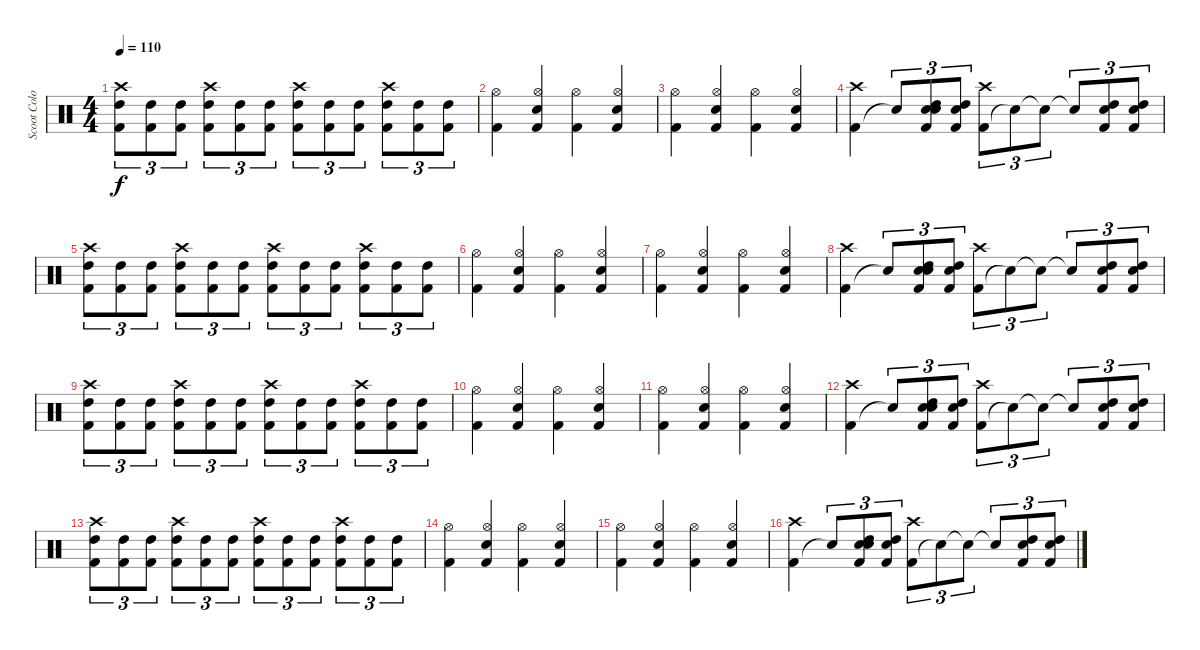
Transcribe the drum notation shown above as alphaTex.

\track ("Scoot Colombus" "Scoot Colo") {instrument percussion}
\staff {score}
\articulation defaults
\ts (4 4)
\tempo 110
\clef neutral
\ks c
("Kick (hit) 2" "High Tom (hit)" "Crash high (hit)").8{tu (3 2) dy f} ("Kick (hit) 2" "High Tom (hit)").8{tu (3 2)} ("Kick (hit) 2" "High Tom (hit)").8{tu (3 2)} ("Kick (hit) 2" "High Tom (hit)" "Crash high (hit)").8{tu (3 2)} ("Kick (hit) 2" "High Tom (hit)").8{tu (3 2)} ("Kick (hit) 2" "High Tom (hit)").8{tu (3 2)} ("Kick (hit) 2" "High Tom (hit)" "Crash high (hit)").8{tu (3 2)} ("Kick (hit) 2" "High Tom (hit)").8{tu (3 2)} ("Kick (hit) 2" "High Tom (hit)").8{tu (3 2)} ("Kick (hit) 2" "High Tom (hit)" "Crash high (hit)").8{tu (3 2)} ("Kick (hit) 2" "High Tom (hit)").8{tu (3 2)} ("Kick (hit) 2" "High Tom (hit)").8{tu (3 2)} |
("Kick (hit) 2" "Hi-Hat (open)").4 ("Kick (hit) 2" "Snare (hit) 2" "Hi-Hat (open)").4 ("Kick (hit) 2" "Hi-Hat (open)").4 ("Kick (hit) 2" "Snare (hit) 2" "Hi-Hat (open)").4 |
("Kick (hit) 2" "Hi-Hat (open)").4 ("Kick (hit) 2" "Snare (hit) 2" "Hi-Hat (open)").4 ("Kick (hit) 2" "Hi-Hat (open)").4 ("Kick (hit) 2" "Snare (hit) 2" "Hi-Hat (open)").4 |
("Kick (hit) 2" "Crash high (hit)").4 "Snare (hit)"{t}.8{tu (3 2)} ("Kick (hit) 2" "High Tom (hit)" "Snare (hit) 2" "Snare (hit)").8{tu (3 2)} ("Kick (hit) 2" "High Tom (hit)" "Snare (hit) 2").8{tu (3 2)} ("Kick (hit) 2" "Crash high (hit)").8{tu (3 2)} "Snare (hit)"{t}.8{tu (3 2)} "Snare (hit)"{t}.8{tu (3 2)} "Snare (hit)"{t}.8{tu (3 2)} ("Kick (hit) 2" "High Tom (hit)" "Snare (hit) 2").8{tu (3 2)} ("Kick (hit) 2" "High Tom (hit)" "Snare (hit) 2").8{tu (3 2)} |
("Kick (hit) 2" "High Tom (hit)" "Crash high (hit)").8{tu (3 2)} ("Kick (hit) 2" "High Tom (hit)").8{tu (3 2)} ("Kick (hit) 2" "High Tom (hit)").8{tu (3 2)} ("Kick (hit) 2" "High Tom (hit)" "Crash high (hit)").8{tu (3 2)} ("Kick (hit) 2" "High Tom (hit)").8{tu (3 2)} ("Kick (hit) 2" "High Tom (hit)").8{tu (3 2)} ("Kick (hit) 2" "High Tom (hit)" "Crash high (hit)").8{tu (3 2)} ("Kick (hit) 2" "High Tom (hit)").8{tu (3 2)} ("Kick (hit) 2" "High Tom (hit)").8{tu (3 2)} ("Kick (hit) 2" "High Tom (hit)" "Crash high (hit)").8{tu (3 2)} ("Kick (hit) 2" "High Tom (hit)").8{tu (3 2)} ("Kick (hit) 2" "High Tom (hit)").8{tu (3 2)} |
("Kick (hit) 2" "Hi-Hat (open)").4 ("Kick (hit) 2" "Snare (hit) 2" "Hi-Hat (open)").4 ("Kick (hit) 2" "Hi-Hat (open)").4 ("Kick (hit) 2" "Snare (hit) 2" "Hi-Hat (open)").4 |
("Kick (hit) 2" "Hi-Hat (open)").4 ("Kick (hit) 2" "Snare (hit) 2" "Hi-Hat (open)").4 ("Kick (hit) 2" "Hi-Hat (open)").4 ("Kick (hit) 2" "Snare (hit) 2" "Hi-Hat (open)").4 |
("Kick (hit) 2" "Crash high (hit)").4 "Snare (hit)"{t}.8{tu (3 2)} ("Kick (hit) 2" "High Tom (hit)" "Snare (hit) 2" "Snare (hit)").8{tu (3 2)} ("Kick (hit) 2" "High Tom (hit)" "Snare (hit) 2").8{tu (3 2)} ("Kick (hit) 2" "Crash high (hit)").8{tu (3 2)} "Snare (hit)"{t}.8{tu (3 2)} "Snare (hit)"{t}.8{tu (3 2)} "Snare (hit)"{t}.8{tu (3 2)} ("Kick (hit) 2" "High Tom (hit)" "Snare (hit) 2").8{tu (3 2)} ("Kick (hit) 2" "High Tom (hit)" "Snare (hit) 2").8{tu (3 2)} |
("Kick (hit) 2" "High Tom (hit)" "Crash high (hit)").8{tu (3 2)} ("Kick (hit) 2" "High Tom (hit)").8{tu (3 2)} ("Kick (hit) 2" "High Tom (hit)").8{tu (3 2)} ("Kick (hit) 2" "High Tom (hit)" "Crash high (hit)").8{tu (3 2)} ("Kick (hit) 2" "High Tom (hit)").8{tu (3 2)} ("Kick (hit) 2" "High Tom (hit)").8{tu (3 2)} ("Kick (hit) 2" "High Tom (hit)" "Crash high (hit)").8{tu (3 2)} ("Kick (hit) 2" "High Tom (hit)").8{tu (3 2)} ("Kick (hit) 2" "High Tom (hit)").8{tu (3 2)} ("Kick (hit) 2" "High Tom (hit)" "Crash high (hit)").8{tu (3 2)} ("Kick (hit) 2" "High Tom (hit)").8{tu (3 2)} ("Kick (hit) 2" "High Tom (hit)").8{tu (3 2)} |
("Kick (hit) 2" "Hi-Hat (open)").4 ("Kick (hit) 2" "Snare (hit) 2" "Hi-Hat (open)").4 ("Kick (hit) 2" "Hi-Hat (open)").4 ("Kick (hit) 2" "Snare (hit) 2" "Hi-Hat (open)").4 |
("Kick (hit) 2" "Hi-Hat (open)").4 ("Kick (hit) 2" "Snare (hit) 2" "Hi-Hat (open)").4 ("Kick (hit) 2" "Hi-Hat (open)").4 ("Kick (hit) 2" "Snare (hit) 2" "Hi-Hat (open)").4 |
("Kick (hit) 2" "Crash high (hit)").4 "Snare (hit)"{t}.8{tu (3 2)} ("Kick (hit) 2" "High Tom (hit)" "Snare (hit) 2" "Snare (hit)").8{tu (3 2)} ("Kick (hit) 2" "High Tom (hit)" "Snare (hit) 2").8{tu (3 2)} ("Kick (hit) 2" "Crash high (hit)").8{tu (3 2)} "Snare (hit)"{t}.8{tu (3 2)} "Snare (hit)"{t}.8{tu (3 2)} "Snare (hit)"{t}.8{tu (3 2)} ("Kick (hit) 2" "High Tom (hit)" "Snare (hit) 2").8{tu (3 2)} ("Kick (hit) 2" "High Tom (hit)" "Snare (hit) 2").8{tu (3 2)} |
("Kick (hit) 2" "High Tom (hit)" "Crash high (hit)").8{tu (3 2)} ("Kick (hit) 2" "High Tom (hit)").8{tu (3 2)} ("Kick (hit) 2" "High Tom (hit)").8{tu (3 2)} ("Kick (hit) 2" "High Tom (hit)" "Crash high (hit)").8{tu (3 2)} ("Kick (hit) 2" "High Tom (hit)").8{tu (3 2)} ("Kick (hit) 2" "High Tom (hit)").8{tu (3 2)} ("Kick (hit) 2" "High Tom (hit)" "Crash high (hit)").8{tu (3 2)} ("Kick (hit) 2" "High Tom (hit)").8{tu (3 2)} ("Kick (hit) 2" "High Tom (hit)").8{tu (3 2)} ("Kick (hit) 2" "High Tom (hit)" "Crash high (hit)").8{tu (3 2)} ("Kick (hit) 2" "High Tom (hit)").8{tu (3 2)} ("Kick (hit) 2" "High Tom (hit)").8{tu (3 2)} |
("Kick (hit) 2" "Hi-Hat (open)").4 ("Kick (hit) 2" "Snare (hit) 2" "Hi-Hat (open)").4 ("Kick (hit) 2" "Hi-Hat (open)").4 ("Kick (hit) 2" "Snare (hit) 2" "Hi-Hat (open)").4 |
("Kick (hit) 2" "Hi-Hat (open)").4 ("Kick (hit) 2" "Snare (hit) 2" "Hi-Hat (open)").4 ("Kick (hit) 2" "Hi-Hat (open)").4 ("Kick (hit) 2" "Snare (hit) 2" "Hi-Hat (open)").4 |
("Kick (hit) 2" "Crash high (hit)").4 "Snare (hit)"{t}.8{tu (3 2)} ("Kick (hit) 2" "High Tom (hit)" "Snare (hit) 2" "Snare (hit)").8{tu (3 2)} ("Kick (hit) 2" "High Tom (hit)" "Snare (hit) 2").8{tu (3 2)} ("Kick (hit) 2" "Crash high (hit)").8{tu (3 2)} "Snare (hit)"{t}.8{tu (3 2)} "Snare (hit)"{t}.8{tu (3 2)} "Snare (hit)"{t}.8{tu (3 2)} ("Kick (hit) 2" "High Tom (hit)" "Snare (hit) 2").8{tu (3 2)} ("Kick (hit) 2" "High Tom (hit)" "Snare (hit) 2").8{tu (3 2)}
